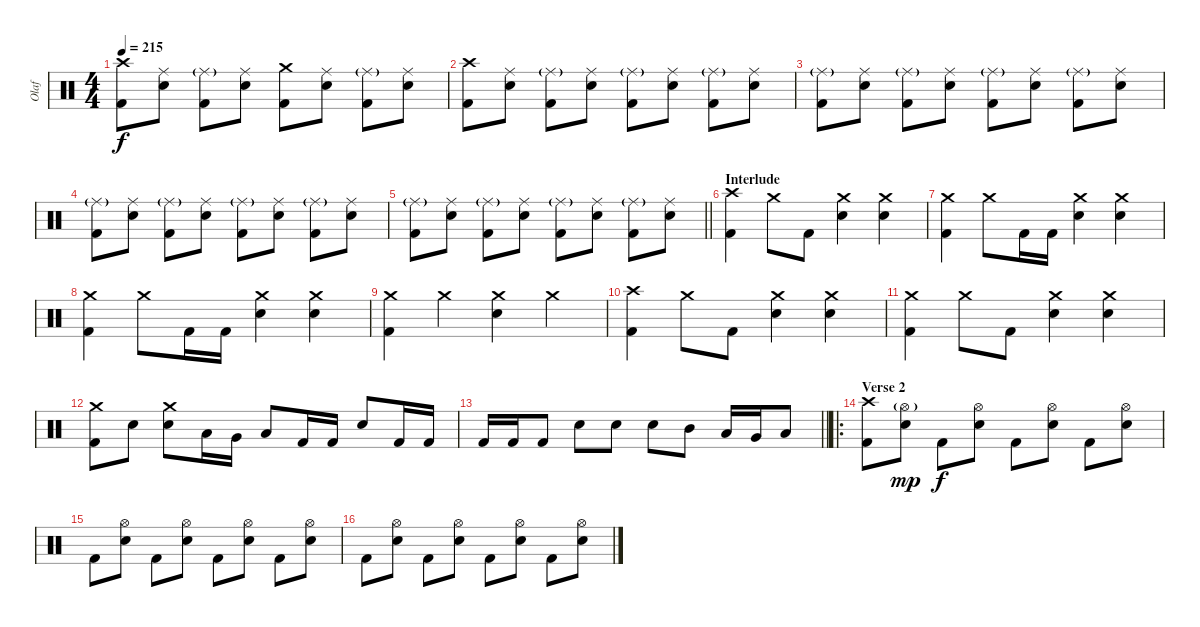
\track ("Olaf" "Olaf") {instrument percussion}
\staff {score}
\articulation defaults
\ts (4 4)
\tempo 215
\clef neutral
\ks c
("Crash high (hit)" "Kick (hit) 2").8{dy f} ("Ride (middle)" "Electric Snare (hit)").8 ("Ride (middle)"{g} "Kick (hit) 2").8 ("Ride (middle)" "Electric Snare (hit)").8 ("Crash medium (hit)" "Kick (hit) 2").8 ("Ride (middle)" "Electric Snare (hit)").8 ("Ride (middle)"{g} "Kick (hit) 2").8 ("Ride (middle)" "Electric Snare (hit)").8 |
("Crash high (hit)" "Kick (hit) 2").8 ("Ride (middle)" "Electric Snare (hit)").8 ("Ride (middle)"{g} "Kick (hit) 2").8 ("Ride (middle)" "Electric Snare (hit)").8 ("Ride (middle)"{g} "Kick (hit) 2").8 ("Ride (middle)" "Electric Snare (hit)").8 ("Ride (middle)"{g} "Kick (hit) 2").8 ("Ride (middle)" "Electric Snare (hit)").8 |
("Ride (middle)"{g} "Kick (hit) 2").8 ("Ride (middle)" "Electric Snare (hit)").8 ("Ride (middle)"{g} "Kick (hit) 2").8 ("Ride (middle)" "Electric Snare (hit)").8 ("Ride (middle)"{g} "Kick (hit) 2").8 ("Ride (middle)" "Electric Snare (hit)").8 ("Ride (middle)"{g} "Kick (hit) 2").8 ("Ride (middle)" "Electric Snare (hit)").8 |
("Ride (middle)"{g} "Kick (hit) 2").8 ("Ride (middle)" "Electric Snare (hit)").8 ("Ride (middle)"{g} "Kick (hit) 2").8 ("Ride (middle)" "Electric Snare (hit)").8 ("Ride (middle)"{g} "Kick (hit) 2").8 ("Ride (middle)" "Electric Snare (hit)").8 ("Ride (middle)"{g} "Kick (hit) 2").8 ("Ride (middle)" "Electric Snare (hit)").8 |
\barLineRight lightlight
("Ride (middle)"{g} "Kick (hit) 2").8 ("Ride (middle)" "Electric Snare (hit)").8 ("Ride (middle)"{g} "Kick (hit) 2").8 ("Ride (middle)" "Electric Snare (hit)").8 ("Ride (middle)"{g} "Kick (hit) 2").8 ("Ride (middle)" "Electric Snare (hit)").8 ("Ride (middle)"{g} "Kick (hit) 2").8 ("Ride (middle)" "Electric Snare (hit)").8 |
\section ("" "Interlude")
("Crash high (hit)" "Kick (hit) 2").4 "Crash medium (hit)".8 "Kick (hit) 2".8 ("Crash medium (hit)" "Electric Snare (hit)").4 ("Crash medium (hit)" "Electric Snare (hit)").4 |
("Crash medium (hit)" "Kick (hit) 2").4 "Crash medium (hit)".8 "Kick (hit) 2".16 "Kick (hit) 2".16 ("Crash medium (hit)" "Electric Snare (hit)").4 ("Crash medium (hit)" "Electric Snare (hit)").4 |
("Crash medium (hit)" "Kick (hit) 2").4 "Crash medium (hit)".8 "Kick (hit) 2".16 "Kick (hit) 2".16 ("Crash medium (hit)" "Electric Snare (hit)").4 ("Crash medium (hit)" "Electric Snare (hit)").4 |
("Crash medium (hit)" "Kick (hit) 2").4 "Crash medium (hit)".4 ("Crash medium (hit)" "Electric Snare (hit)").4 "Crash medium (hit)".4 |
("Crash high (hit)" "Kick (hit) 2").4 "Crash medium (hit)".8 "Kick (hit) 2".8 ("Crash medium (hit)" "Electric Snare (hit)").4 ("Crash medium (hit)" "Electric Snare (hit)").4 |
("Crash medium (hit)" "Kick (hit) 2").4 "Crash medium (hit)".8 "Kick (hit) 2".8 ("Crash medium (hit)" "Electric Snare (hit)").4 ("Crash medium (hit)" "Electric Snare (hit)").4 |
("Crash medium (hit)" "Kick (hit) 2").8 "Electric Snare (hit)".8 ("Crash medium (hit)" "Electric Snare (hit)").8 "Low Tom (hit)".16 "Very Low Tom (hit)".16 "Low Floor Tom (hit)".8 "Kick (hit) 2".16 "Kick (hit) 2".16 "Electric Snare (hit)".8 "Kick (hit) 2".16 "Kick (hit) 2".16 |
\barLineRight lightlight "Kick (hit) 2".16 "Kick (hit) 2".16 "Kick (hit) 2".8 "Electric Snare (hit)".8 "Electric Snare (hit)".8 "Electric Snare (hit)".8 "Mid Tom (hit)".8 "Low Tom (hit)".16 "Very Low Tom (hit)".16 "Low Floor Tom (hit)".8
|
\ro
\section ("" "Verse 2")
("Crash high (hit)" "Kick (hit) 2").8 ("Hi-Hat (open)"{g} "Electric Snare (hit)").8{dy mp} "Kick (hit) 2".8{dy f} ("Hi-Hat (open)" "Electric Snare (hit)").8 "Kick (hit) 2".8 ("Hi-Hat (open)" "Electric Snare (hit)").8 "Kick (hit) 2".8 ("Hi-Hat (open)" "Electric Snare (hit)").8 |
"Kick (hit) 2".8 ("Hi-Hat (open)" "Electric Snare (hit)").8 "Kick (hit) 2".8 ("Hi-Hat (open)" "Electric Snare (hit)").8 "Kick (hit) 2".8 ("Hi-Hat (open)" "Electric Snare (hit)").8 "Kick (hit) 2".8 ("Hi-Hat (open)" "Electric Snare (hit)").8 |
"Kick (hit) 2".8 ("Hi-Hat (open)" "Electric Snare (hit)").8 "Kick (hit) 2".8 ("Hi-Hat (open)" "Electric Snare (hit)").8 "Kick (hit) 2".8 ("Hi-Hat (open)" "Electric Snare (hit)").8 "Kick (hit) 2".8 ("Hi-Hat (open)" "Electric Snare (hit)").8
